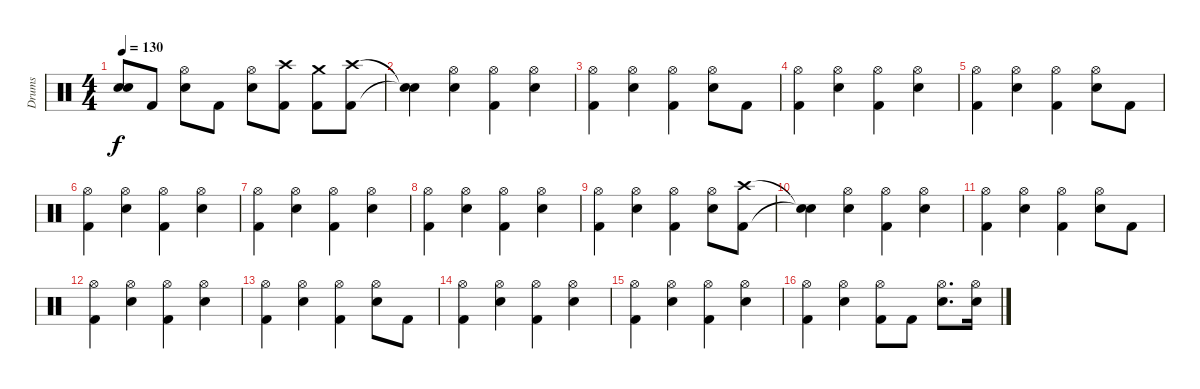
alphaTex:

\track ("Drums" "Drums") {instrument percussion}
\staff {score}
\articulation defaults
\ts (4 4)
\tempo 130
\clef neutral
\ks c
("Snare (hit)"{t} "Snare (hit)"{t}).8{dy f} "Kick (hit) 2".8 ("Snare (hit) 2" "Hi-Hat (open)").8 "Kick (hit) 2".8 ("Snare (hit) 2" "Hi-Hat (open)").8 ("Crash high (hit)" "Kick (hit) 2").8 ("Crash medium (hit)" "Kick (hit) 2").8 ("Crash high (hit)" "Kick (hit) 2").8 |
("Snare (hit)"{t} "Snare (hit)"{t}).4 ("Snare (hit) 2" "Hi-Hat (open)").4 ("Kick (hit) 2" "Hi-Hat (open)").4 ("Snare (hit) 2" "Hi-Hat (open)").4 |
("Hi-Hat (open)" "Kick (hit) 2").4 ("Hi-Hat (open)" "Snare (hit) 2").4 ("Hi-Hat (open)" "Kick (hit) 2").4 ("Hi-Hat (open)" "Snare (hit) 2").8 "Kick (hit) 2".8 |
("Hi-Hat (open)" "Kick (hit) 2").4 ("Hi-Hat (open)" "Snare (hit) 2").4 ("Hi-Hat (open)" "Kick (hit) 2").4 ("Hi-Hat (open)" "Snare (hit) 2").4 |
("Hi-Hat (open)" "Kick (hit) 2").4 ("Hi-Hat (open)" "Snare (hit) 2").4 ("Hi-Hat (open)" "Kick (hit) 2").4 ("Hi-Hat (open)" "Snare (hit) 2").8 "Kick (hit) 2".8 |
("Hi-Hat (open)" "Kick (hit) 2").4 ("Hi-Hat (open)" "Snare (hit) 2").4 ("Hi-Hat (open)" "Kick (hit) 2").4 ("Hi-Hat (open)" "Snare (hit) 2").4 |
("Hi-Hat (open)" "Kick (hit) 2").4 ("Hi-Hat (open)" "Snare (hit) 2").4 ("Hi-Hat (open)" "Kick (hit) 2").4 ("Hi-Hat (open)" "Snare (hit) 2").4 |
("Hi-Hat (open)" "Kick (hit) 2").4 ("Hi-Hat (open)" "Snare (hit) 2").4 ("Hi-Hat (open)" "Kick (hit) 2").4 ("Hi-Hat (open)" "Snare (hit) 2").4 |
("Hi-Hat (open)" "Kick (hit) 2").4 ("Hi-Hat (open)" "Snare (hit) 2").4 ("Hi-Hat (open)" "Kick (hit) 2").4 ("Hi-Hat (open)" "Snare (hit) 2").8 ("Crash high (hit)" "Kick (hit) 2").8 |
("Snare (hit)"{t} "Snare (hit)"{t}).4 ("Snare (hit) 2" "Hi-Hat (open)").4 ("Kick (hit) 2" "Hi-Hat (open)").4 ("Snare (hit) 2" "Hi-Hat (open)").4 |
("Hi-Hat (open)" "Kick (hit) 2").4 ("Hi-Hat (open)" "Snare (hit) 2").4 ("Hi-Hat (open)" "Kick (hit) 2").4 ("Hi-Hat (open)" "Snare (hit) 2").8 "Kick (hit) 2".8 |
("Hi-Hat (open)" "Kick (hit) 2").4 ("Hi-Hat (open)" "Snare (hit) 2").4 ("Hi-Hat (open)" "Kick (hit) 2").4 ("Hi-Hat (open)" "Snare (hit) 2").4 |
("Hi-Hat (open)" "Kick (hit) 2").4 ("Hi-Hat (open)" "Snare (hit) 2").4 ("Hi-Hat (open)" "Kick (hit) 2").4 ("Hi-Hat (open)" "Snare (hit) 2").8 "Kick (hit) 2".8 |
("Hi-Hat (open)" "Kick (hit) 2").4 ("Hi-Hat (open)" "Snare (hit) 2").4 ("Hi-Hat (open)" "Kick (hit) 2").4 ("Hi-Hat (open)" "Snare (hit) 2").4 |
("Hi-Hat (open)" "Kick (hit) 2").4 ("Hi-Hat (open)" "Snare (hit) 2").4 ("Hi-Hat (open)" "Kick (hit) 2").4 ("Hi-Hat (open)" "Snare (hit) 2").4 |
("Hi-Hat (open)" "Kick (hit) 2").4 ("Hi-Hat (open)" "Snare (hit) 2").4 ("Hi-Hat (open)" "Kick (hit) 2").8 "Kick (hit) 2".8 ("Hi-Hat (open)" "Snare (hit) 2").8{d} ("Hi-Hat (open)" "Snare (hit) 2").16
